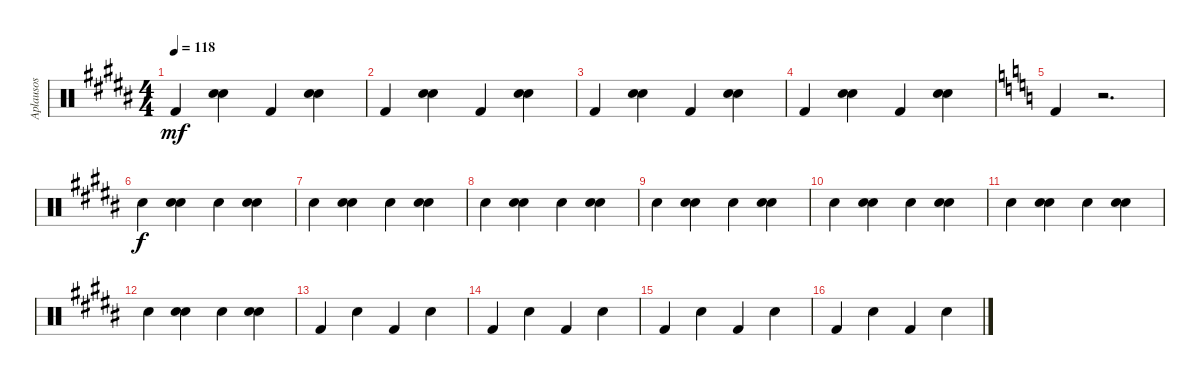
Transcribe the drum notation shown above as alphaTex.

\track ("Aplausos" "Aplausos") {instrument percussion}
\staff {score}
\articulation defaults
\ts (4 4)
\tempo 118
\clef neutral
\ks b "Kick (hit) 2".4{dy mf}
("Hand Clap (hit)" "Hand Clap (hit)").4 "Kick (hit) 2".4 ("Hand Clap (hit)" "Hand Clap (hit)").4 |
"Kick (hit) 2".4 ("Hand Clap (hit)" "Hand Clap (hit)").4 "Kick (hit) 2".4 ("Hand Clap (hit)" "Hand Clap (hit)").4 |
"Kick (hit) 2".4 ("Hand Clap (hit)" "Hand Clap (hit)").4 "Kick (hit) 2".4 ("Hand Clap (hit)" "Hand Clap (hit)").4 |
"Kick (hit) 2".4 ("Hand Clap (hit)" "Hand Clap (hit)").4 "Kick (hit) 2".4 ("Hand Clap (hit)" "Hand Clap (hit)").4 |
\ks c "Kick (hit) 2".4
r.2{d} |
\ks b "Hand Clap (hit)".4{dy f}
("Hand Clap (hit)" "Hand Clap (hit)").4 "Hand Clap (hit)".4 ("Hand Clap (hit)" "Hand Clap (hit)").4 |
"Hand Clap (hit)".4 ("Hand Clap (hit)" "Hand Clap (hit)").4 "Hand Clap (hit)".4 ("Hand Clap (hit)" "Hand Clap (hit)").4 |
"Hand Clap (hit)".4 ("Hand Clap (hit)" "Hand Clap (hit)").4 "Hand Clap (hit)".4 ("Hand Clap (hit)" "Hand Clap (hit)").4 |
"Hand Clap (hit)".4 ("Hand Clap (hit)" "Hand Clap (hit)").4 "Hand Clap (hit)".4 ("Hand Clap (hit)" "Hand Clap (hit)").4 |
"Hand Clap (hit)".4 ("Hand Clap (hit)" "Hand Clap (hit)").4 "Hand Clap (hit)".4 ("Hand Clap (hit)" "Hand Clap (hit)").4 |
"Hand Clap (hit)".4 ("Hand Clap (hit)" "Hand Clap (hit)").4 "Hand Clap (hit)".4 ("Hand Clap (hit)" "Hand Clap (hit)").4 |
"Hand Clap (hit)".4 ("Hand Clap (hit)" "Hand Clap (hit)").4 "Hand Clap (hit)".4 ("Hand Clap (hit)" "Hand Clap (hit)").4 |
"Kick (hit) 2".4 "Hand Clap (hit)".4 "Kick (hit) 2".4 "Hand Clap (hit)".4 |
"Kick (hit) 2".4 "Hand Clap (hit)".4 "Kick (hit) 2".4 "Hand Clap (hit)".4 |
"Kick (hit) 2".4 "Hand Clap (hit)".4 "Kick (hit) 2".4 "Hand Clap (hit)".4 |
"Kick (hit) 2".4 "Hand Clap (hit)".4 "Kick (hit) 2".4 "Hand Clap (hit)".4
